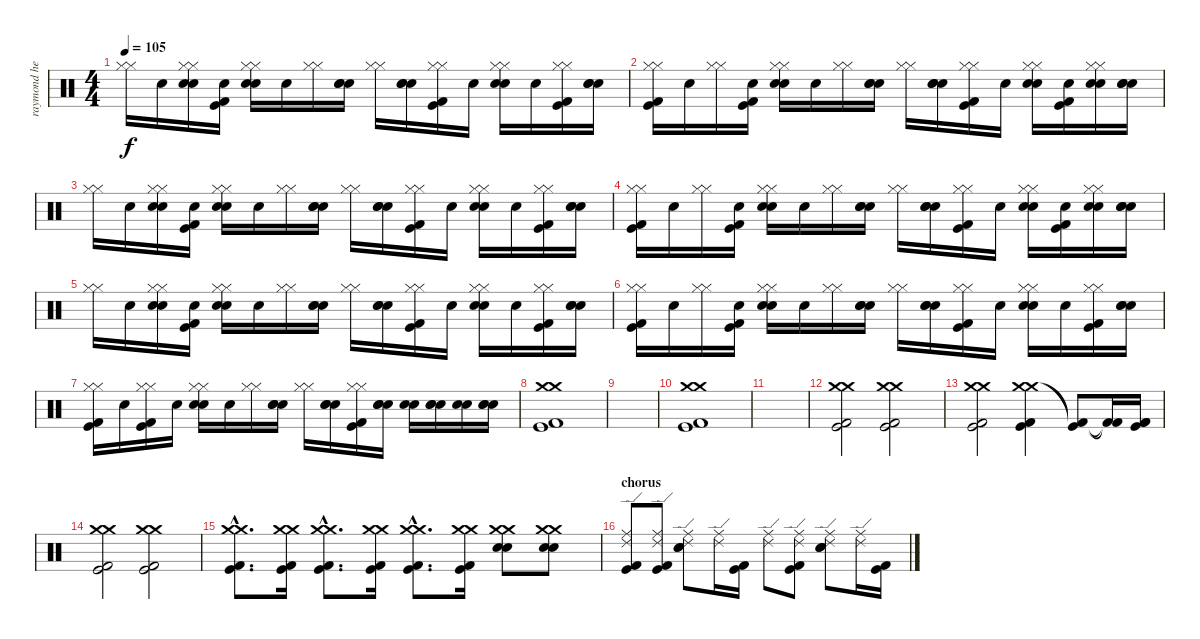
\track ("raymond herrea" "raymond he") {instrument percussion}
\staff {score}
\articulation defaults
\ts (4 4)
\tempo 105
\clef neutral
\ks c
("Hi-Hat (closed)" "Hi-Hat (closed)").16{dy f} "Snare (hit)".16 ("Hi-Hat (closed)" "Hi-Hat (closed)" "Electric Snare (hit)" "Snare (hit) 2").16 ("Snare (hit)" "Kick (hit)" "Kick (hit) 2").16 ("Hi-Hat (closed)" "Hi-Hat (closed)" "Snare (hit) 2" "Electric Snare (hit)").16 "Snare (hit)".16 ("Hi-Hat (closed)" "Hi-Hat (closed)").16 ("Snare (hit)" "Snare (hit) 2" "Electric Snare (hit)").16 ("Hi-Hat (closed)" "Hi-Hat (closed)").16 ("Snare (hit)" "Snare (hit) 2" "Electric Snare (hit)").16 ("Hi-Hat (closed)" "Hi-Hat (closed)" "Kick (hit)" "Kick (hit) 2").16 "Snare (hit)".16 ("Hi-Hat (closed)" "Hi-Hat (closed)" "Snare (hit) 2" "Electric Snare (hit)").16 "Snare (hit)".16 ("Hi-Hat (closed)" "Hi-Hat (closed)" "Kick (hit)" "Kick (hit) 2").16 ("Snare (hit)" "Snare (hit) 2" "Electric Snare (hit)").16 |
("Hi-Hat (closed)" "Hi-Hat (closed)" "Kick (hit)" "Kick (hit) 2").16 "Snare (hit)".16 ("Hi-Hat (closed)" "Hi-Hat (closed)").16 ("Snare (hit)" "Kick (hit)" "Kick (hit) 2").16 ("Hi-Hat (closed)" "Hi-Hat (closed)" "Snare (hit) 2" "Electric Snare (hit)").16 "Snare (hit)".16 ("Hi-Hat (closed)" "Hi-Hat (closed)").16 ("Snare (hit)" "Snare (hit) 2" "Electric Snare (hit)").16 ("Hi-Hat (closed)" "Hi-Hat (closed)").16 ("Snare (hit)" "Snare (hit) 2" "Electric Snare (hit)").16 ("Hi-Hat (closed)" "Hi-Hat (closed)" "Kick (hit)" "Kick (hit) 2").16 "Snare (hit)".16 ("Hi-Hat (closed)" "Hi-Hat (closed)" "Snare (hit) 2" "Electric Snare (hit)").16 ("Snare (hit)" "Kick (hit)" "Kick (hit) 2").16 ("Hi-Hat (closed)" "Hi-Hat (closed)" "Snare (hit) 2" "Electric Snare (hit)").16 ("Snare (hit)" "Snare (hit) 2" "Electric Snare (hit)").16 |
("Hi-Hat (closed)" "Hi-Hat (closed)").16 "Snare (hit)".16 ("Hi-Hat (closed)" "Hi-Hat (closed)" "Electric Snare (hit)" "Snare (hit) 2").16 ("Snare (hit)" "Kick (hit)" "Kick (hit) 2").16 ("Hi-Hat (closed)" "Hi-Hat (closed)" "Snare (hit) 2" "Electric Snare (hit)").16 "Snare (hit)".16 ("Hi-Hat (closed)" "Hi-Hat (closed)").16 ("Snare (hit)" "Snare (hit) 2" "Electric Snare (hit)").16 ("Hi-Hat (closed)" "Hi-Hat (closed)").16 ("Snare (hit)" "Snare (hit) 2" "Electric Snare (hit)").16 ("Hi-Hat (closed)" "Hi-Hat (closed)" "Kick (hit)" "Kick (hit) 2").16 "Snare (hit)".16 ("Hi-Hat (closed)" "Hi-Hat (closed)" "Snare (hit) 2" "Electric Snare (hit)").16 "Snare (hit)".16 ("Hi-Hat (closed)" "Hi-Hat (closed)" "Kick (hit)" "Kick (hit) 2").16 ("Snare (hit)" "Snare (hit) 2" "Electric Snare (hit)").16 |
("Hi-Hat (closed)" "Hi-Hat (closed)" "Kick (hit)" "Kick (hit) 2").16 "Snare (hit)".16 ("Hi-Hat (closed)" "Hi-Hat (closed)").16 ("Snare (hit)" "Kick (hit)" "Kick (hit) 2").16 ("Hi-Hat (closed)" "Hi-Hat (closed)" "Snare (hit) 2" "Electric Snare (hit)").16 "Snare (hit)".16 ("Hi-Hat (closed)" "Hi-Hat (closed)").16 ("Snare (hit)" "Snare (hit) 2" "Electric Snare (hit)").16 ("Hi-Hat (closed)" "Hi-Hat (closed)").16 ("Snare (hit)" "Snare (hit) 2" "Electric Snare (hit)").16 ("Hi-Hat (closed)" "Hi-Hat (closed)" "Kick (hit)" "Kick (hit) 2").16 "Snare (hit)".16 ("Hi-Hat (closed)" "Hi-Hat (closed)" "Snare (hit) 2" "Electric Snare (hit)").16 ("Snare (hit)" "Kick (hit)" "Kick (hit) 2").16 ("Hi-Hat (closed)" "Hi-Hat (closed)" "Snare (hit) 2" "Electric Snare (hit)").16 ("Snare (hit)" "Snare (hit) 2" "Electric Snare (hit)").16 |
("Hi-Hat (closed)" "Hi-Hat (closed)").16 "Snare (hit)".16 ("Hi-Hat (closed)" "Hi-Hat (closed)" "Electric Snare (hit)" "Snare (hit) 2").16 ("Snare (hit)" "Kick (hit)" "Kick (hit) 2").16 ("Hi-Hat (closed)" "Hi-Hat (closed)" "Snare (hit) 2" "Electric Snare (hit)").16 "Snare (hit)".16 ("Hi-Hat (closed)" "Hi-Hat (closed)").16 ("Snare (hit)" "Snare (hit) 2" "Electric Snare (hit)").16 ("Hi-Hat (closed)" "Hi-Hat (closed)").16 ("Snare (hit)" "Snare (hit) 2" "Electric Snare (hit)").16 ("Hi-Hat (closed)" "Hi-Hat (closed)" "Kick (hit)" "Kick (hit) 2").16 "Snare (hit)".16 ("Hi-Hat (closed)" "Hi-Hat (closed)" "Snare (hit) 2" "Electric Snare (hit)").16 "Snare (hit)".16 ("Hi-Hat (closed)" "Hi-Hat (closed)" "Kick (hit)" "Kick (hit) 2").16 ("Snare (hit)" "Snare (hit) 2" "Electric Snare (hit)").16 |
("Hi-Hat (closed)" "Hi-Hat (closed)" "Kick (hit)" "Kick (hit) 2").16 "Snare (hit)".16 ("Hi-Hat (closed)" "Hi-Hat (closed)").16 ("Snare (hit)" "Kick (hit)" "Kick (hit) 2").16 ("Hi-Hat (closed)" "Hi-Hat (closed)" "Snare (hit) 2" "Electric Snare (hit)").16 "Snare (hit)".16 ("Hi-Hat (closed)" "Hi-Hat (closed)").16 ("Snare (hit)" "Snare (hit) 2" "Electric Snare (hit)").16 ("Hi-Hat (closed)" "Hi-Hat (closed)").16 ("Snare (hit)" "Snare (hit) 2" "Electric Snare (hit)").16 ("Hi-Hat (closed)" "Hi-Hat (closed)" "Kick (hit)" "Kick (hit) 2").16 "Snare (hit)".16 ("Hi-Hat (closed)" "Hi-Hat (closed)" "Snare (hit) 2" "Electric Snare (hit)").16 "Snare (hit)".16 ("Hi-Hat (closed)" "Hi-Hat (closed)" "Kick (hit)" "Kick (hit) 2").16 ("Snare (hit)" "Snare (hit) 2" "Electric Snare (hit)").16 |
("Hi-Hat (closed)" "Hi-Hat (closed)" "Kick (hit)" "Kick (hit) 2").16 "Snare (hit)".16 ("Hi-Hat (closed)" "Hi-Hat (closed)" "Kick (hit)" "Kick (hit) 2").16 "Snare (hit)".16 ("Hi-Hat (closed)" "Hi-Hat (closed)" "Snare (hit) 2" "Electric Snare (hit)").16 "Snare (hit)".16 ("Hi-Hat (closed)" "Hi-Hat (closed)").16 ("Snare (hit)" "Snare (hit) 2" "Electric Snare (hit)").16 ("Hi-Hat (closed)" "Hi-Hat (closed)").16 ("Snare (hit)" "Snare (hit) 2" "Electric Snare (hit)").16 ("Hi-Hat (closed)" "Hi-Hat (closed)" "Kick (hit)" "Kick (hit) 2").16 ("Snare (hit)" "Snare (hit) 2" "Electric Snare (hit)").16 ("Snare (hit) 2" "Electric Snare (hit)").16 ("Snare (hit)" "Snare (hit) 2" "Electric Snare (hit)").16 ("Snare (hit) 2" "Electric Snare (hit)").16 ("Snare (hit)" "Snare (hit) 2" "Electric Snare (hit)").16 |
("Crash medium (hit)" "Crash medium (hit)" "Kick (hit)" "Kick (hit) 2").1 |
|
("Crash medium (hit)" "Crash medium (hit)" "Kick (hit)" "Kick (hit) 2").1 |
|
("Crash medium (hit)" "Crash medium (hit)" "Kick (hit)" "Kick (hit) 2").2 ("Crash medium (hit)" "Crash medium (hit)" "Kick (hit)" "Kick (hit) 2").2 |
("Crash medium (hit)" "Crash medium (hit)" "Kick (hit)" "Kick (hit) 2").2 ("Crash medium (hit)" "Crash medium (hit)" "Kick (hit)" "Kick (hit) 2").4 ("Kick (hit)"{t} "Kick (hit) 2"{t}).8 ("Kick (hit) 2"{t} "Kick (hit) 2"{t}).16 ("Kick (hit)" "Kick (hit) 2" "Kick (hit) 2").16 |
("Crash medium (hit)" "Crash medium (hit)" "Kick (hit)" "Kick (hit) 2").2 ("Crash medium (hit)" "Crash medium (hit)" "Kick (hit)" "Kick (hit) 2").2 |
("Crash medium (hit)"{hac} "Crash medium (hit)"{hac} "Kick (hit)"{hac} "Kick (hit) 2"{hac}).8{d} ("Crash medium (hit)" "Crash medium (hit)" "Kick (hit)" "Kick (hit) 2").16 ("Crash medium (hit)"{hac} "Crash medium (hit)"{hac} "Kick (hit)"{hac} "Kick (hit) 2"{hac}).8{d} ("Crash medium (hit)" "Crash medium (hit)" "Kick (hit)" "Kick (hit) 2").16 ("Crash medium (hit)"{hac} "Crash medium (hit)"{hac} "Kick (hit)"{hac} "Kick (hit) 2"{hac}).8{d} ("Crash medium (hit)" "Crash medium (hit)" "Kick (hit)" "Kick (hit) 2").16 ("Crash medium (hit)" "Crash medium (hit)" "Electric Snare (hit)" "Snare (hit) 2").8 ("Crash medium (hit)" "Crash medium (hit)" "Electric Snare (hit)" "Snare (hit) 2").8 |
\section ("" "chorus")
("Ride (middle)" "Ride (edge) 2" "Kick (hit)" "Kick (hit) 2").8 ("Ride (middle)" "Ride (edge) 2" "Kick (hit)" "Kick (hit) 2").8 ("Ride (middle)" "Ride (edge) 2" "Snare (hit) 2" "Electric Snare (hit)").8 ("Ride (middle)" "Ride (edge) 2").16 ("Kick (hit)" "Kick (hit) 2").16 ("Ride (middle)" "Ride (edge) 2").8 ("Ride (middle)" "Ride (edge) 2" "Kick (hit)" "Kick (hit) 2").8 ("Ride (middle)" "Ride (edge) 2" "Snare (hit) 2" "Electric Snare (hit)").8 ("Ride (middle)" "Ride (edge) 2").16 ("Kick (hit)" "Kick (hit) 2").16
